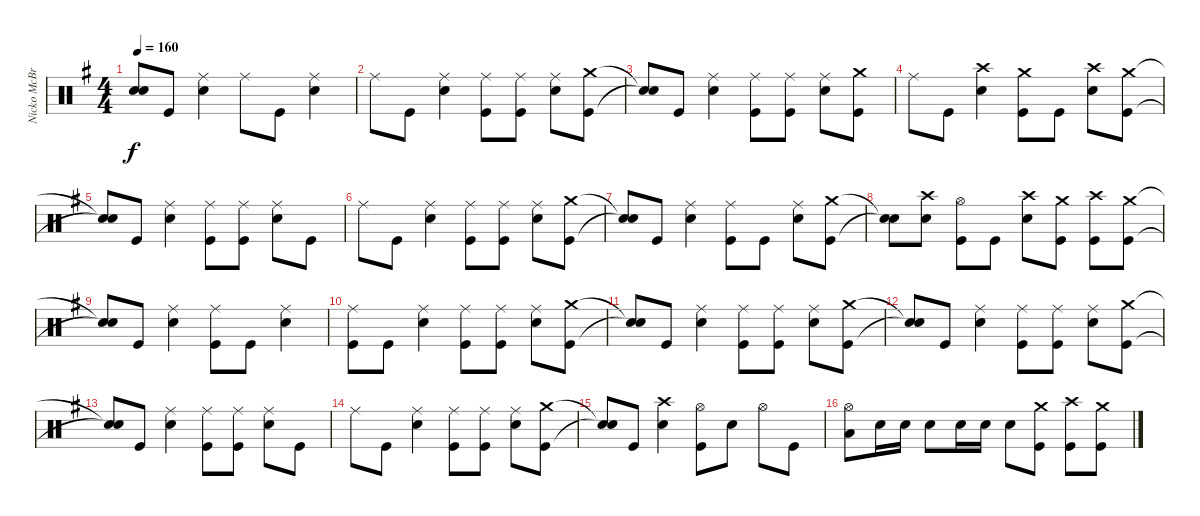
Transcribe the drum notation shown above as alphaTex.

\track ("Nicko McBrain" "Nicko McBr") {instrument percussion}
\staff {score}
\articulation defaults
\ts (4 4)
\tempo 160
\clef neutral
\ks g
("Snare (hit)"{t} "Snare (hit)"{t}).8{dy f} "Kick (hit)".8 ("Electric Snare (hit)" "Ride (middle)").4 "Ride (middle)".8 "Kick (hit)".8 ("Electric Snare (hit)" "Ride (middle)").4 |
"Ride (middle)".8 "Kick (hit)".8 ("Electric Snare (hit)" "Ride (middle)").4 ("Kick (hit)" "Ride (middle)").8 ("Kick (hit)" "Ride (middle)").8 ("Electric Snare (hit)" "Ride (middle)").8 ("Kick (hit)" "Crash medium (hit)").8 |
("Snare (hit)"{t} "Snare (hit)"{t}).8 "Kick (hit)".8 ("Electric Snare (hit)" "Ride (middle)").4 ("Kick (hit)" "Ride (middle)").8 ("Kick (hit)" "Ride (middle)").8 ("Electric Snare (hit)" "Ride (middle)").8 ("Kick (hit)" "Crash medium (hit)").8 |
"Ride (middle)".8 "Kick (hit)".8 ("Electric Snare (hit)" "Crash high (hit)").4 ("Kick (hit)" "Crash medium (hit)").8 "Kick (hit)".8 ("Electric Snare (hit)" "Crash high (hit)").8 ("Kick (hit)" "Crash medium (hit)").8 |
("Snare (hit)"{t} "Snare (hit)"{t}).8 "Kick (hit)".8 ("Electric Snare (hit)" "Ride (middle)").4 ("Kick (hit)" "Ride (middle)").8 ("Kick (hit)" "Ride (middle)").8 ("Electric Snare (hit)" "Ride (middle)").8 "Kick (hit)".8 |
"Ride (middle)".8 "Kick (hit)".8 ("Electric Snare (hit)" "Ride (middle)").4 ("Kick (hit)" "Ride (middle)").8 ("Kick (hit)" "Ride (middle)").8 ("Electric Snare (hit)" "Ride (middle)").8 ("Kick (hit)" "Crash medium (hit)").8 |
("Snare (hit)"{t} "Snare (hit)"{t}).8 "Kick (hit)".8 ("Electric Snare (hit)" "Ride (middle)").4 ("Kick (hit)" "Ride (middle)").8 "Kick (hit)".8 ("Electric Snare (hit)" "Ride (middle)").8 ("Kick (hit)" "Crash medium (hit)").8 |
("Snare (hit)"{t} "Snare (hit)"{t}).8 ("Electric Snare (hit)" "Crash high (hit)").8 ("Kick (hit)" "Hi-Hat (open)").8 "Kick (hit)".8 ("Electric Snare (hit)" "Crash high (hit)").8 ("Kick (hit)" "Crash medium (hit)").8 ("Kick (hit)" "Crash high (hit)").8 ("Kick (hit)" "Crash medium (hit)").8 |
("Snare (hit)"{t} "Snare (hit)"{t}).8 "Kick (hit)".8 ("Electric Snare (hit)" "Ride (middle)").4 ("Kick (hit)" "Ride (middle)").8 "Kick (hit)".8 ("Electric Snare (hit)" "Ride (middle)").4 |
("Kick (hit)" "Ride (middle)").8 "Kick (hit)".8 ("Electric Snare (hit)" "Ride (middle)").4 ("Kick (hit)" "Ride (middle)").8 ("Kick (hit)" "Ride (middle)").8 ("Electric Snare (hit)" "Ride (middle)").8 ("Kick (hit)" "Crash medium (hit)").8 |
("Snare (hit)"{t} "Snare (hit)"{t}).8 "Kick (hit)".8 ("Electric Snare (hit)" "Ride (middle)").4 ("Kick (hit)" "Ride (middle)").8 ("Kick (hit)" "Ride (middle)").8 ("Electric Snare (hit)" "Ride (middle)").8 ("Kick (hit)" "Crash medium (hit)").8 |
("Snare (hit)"{t} "Snare (hit)"{t}).8 "Kick (hit)".8 ("Electric Snare (hit)" "Ride (middle)").4 ("Kick (hit)" "Ride (middle)").8 ("Kick (hit)" "Ride (middle)").8 ("Electric Snare (hit)" "Ride (middle)").8 ("Kick (hit)" "Crash medium (hit)").8 |
("Snare (hit)"{t} "Snare (hit)"{t}).8 "Kick (hit)".8 ("Electric Snare (hit)" "Ride (middle)").4 ("Kick (hit)" "Ride (middle)").8 ("Kick (hit)" "Ride (middle)").8 ("Electric Snare (hit)" "Ride (middle)").8 "Kick (hit)".8 |
"Ride (middle)".8 "Kick (hit)".8 ("Electric Snare (hit)" "Ride (middle)").4 ("Kick (hit)" "Ride (middle)").8 ("Kick (hit)" "Ride (middle)").8 ("Electric Snare (hit)" "Ride (middle)").8 ("Kick (hit)" "Crash medium (hit)").8 |
("Snare (hit)"{t} "Snare (hit)"{t}).8 "Kick (hit)".8 ("Electric Snare (hit)" "Crash high (hit)").4 ("Kick (hit)" "Hi-Hat (open)").8 "Electric Snare (hit)".8 "Hi-Hat (open)".8 "Kick (hit)".8 |
("Low Tom (hit)" "Hi-Hat (open)").8 "Electric Snare (hit)".16 "Electric Snare (hit)".16 "Electric Snare (hit)".8 "Electric Snare (hit)".16 "Electric Snare (hit)".16 "Electric Snare (hit)".8 ("Kick (hit)" "Crash medium (hit)").8 ("Kick (hit)" "Crash high (hit)").8 ("Kick (hit)" "Crash medium (hit)").8
